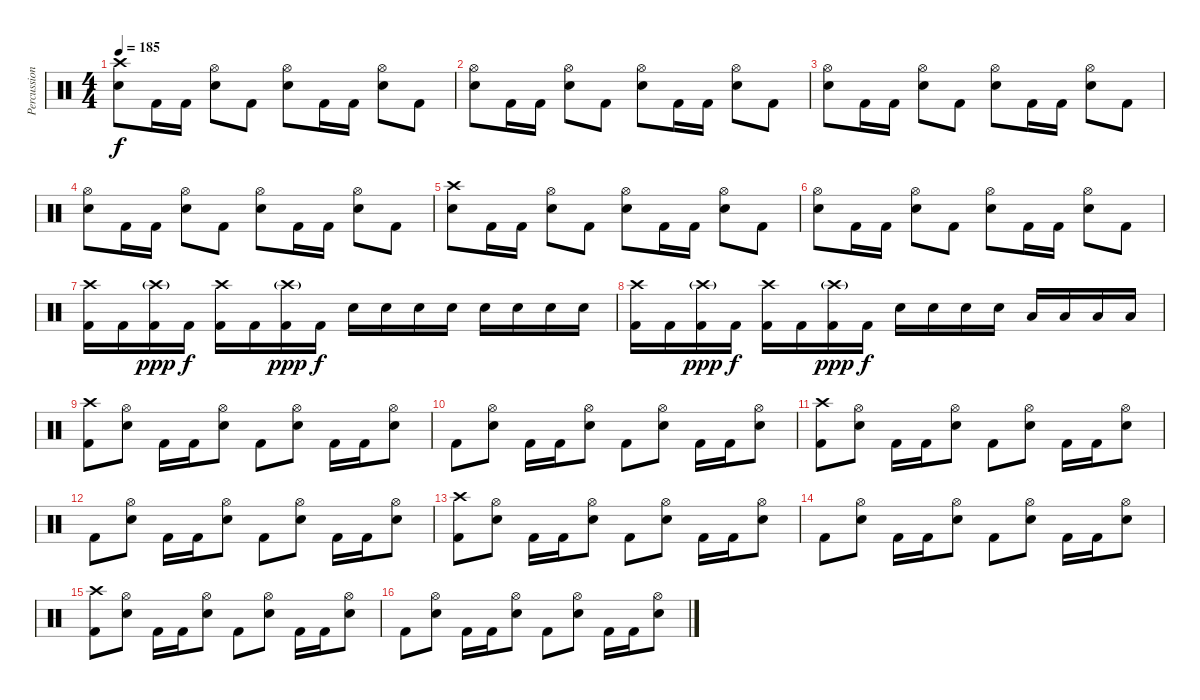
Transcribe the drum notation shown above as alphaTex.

\track ("Percussion" "Percussion") {instrument percussion}
\staff {score}
\articulation defaults
\ts (4 4)
\tempo 185
\clef neutral
\ks c
("Crash high (hit)" "Electric Snare (hit)").8{dy f} "Kick (hit) 2".16 "Kick (hit) 2".16 ("Hi-Hat (open)" "Electric Snare (hit)").8 "Kick (hit) 2".8 ("Hi-Hat (open)" "Electric Snare (hit)").8 "Kick (hit) 2".16 "Kick (hit) 2".16 ("Hi-Hat (open)" "Electric Snare (hit)").8 "Kick (hit) 2".8 |
("Hi-Hat (open)" "Electric Snare (hit)").8 "Kick (hit) 2".16 "Kick (hit) 2".16 ("Hi-Hat (open)" "Electric Snare (hit)").8 "Kick (hit) 2".8 ("Hi-Hat (open)" "Electric Snare (hit)").8 "Kick (hit) 2".16 "Kick (hit) 2".16 ("Hi-Hat (open)" "Electric Snare (hit)").8 "Kick (hit) 2".8 |
("Hi-Hat (open)" "Electric Snare (hit)").8 "Kick (hit) 2".16 "Kick (hit) 2".16 ("Hi-Hat (open)" "Electric Snare (hit)").8 "Kick (hit) 2".8 ("Hi-Hat (open)" "Electric Snare (hit)").8 "Kick (hit) 2".16 "Kick (hit) 2".16 ("Hi-Hat (open)" "Electric Snare (hit)").8 "Kick (hit) 2".8 |
("Hi-Hat (open)" "Electric Snare (hit)").8 "Kick (hit) 2".16 "Kick (hit) 2".16 ("Hi-Hat (open)" "Electric Snare (hit)").8 "Kick (hit) 2".8 ("Hi-Hat (open)" "Electric Snare (hit)").8 "Kick (hit) 2".16 "Kick (hit) 2".16 ("Hi-Hat (open)" "Electric Snare (hit)").8 "Kick (hit) 2".8 |
("Crash high (hit)" "Electric Snare (hit)").8 "Kick (hit) 2".16 "Kick (hit) 2".16 ("Hi-Hat (open)" "Electric Snare (hit)").8 "Kick (hit) 2".8 ("Hi-Hat (open)" "Electric Snare (hit)").8 "Kick (hit) 2".16 "Kick (hit) 2".16 ("Hi-Hat (open)" "Electric Snare (hit)").8 "Kick (hit) 2".8 |
("Hi-Hat (open)" "Electric Snare (hit)").8 "Kick (hit) 2".16 "Kick (hit) 2".16 ("Hi-Hat (open)" "Electric Snare (hit)").8 "Kick (hit) 2".8 ("Hi-Hat (open)" "Electric Snare (hit)").8 "Kick (hit) 2".16 "Kick (hit) 2".16 ("Hi-Hat (open)" "Electric Snare (hit)").8 "Kick (hit) 2".8 |
("Crash high (hit)" "Kick (hit) 2").16 "Kick (hit) 2".16 ("Crash high (hit)"{g} "Kick (hit) 2").16{dy ppp} "Kick (hit) 2".16{dy f} ("Crash high (hit)" "Kick (hit) 2").16 "Kick (hit) 2".16 ("Crash high (hit)"{g} "Kick (hit) 2").16{dy ppp} "Kick (hit) 2".16{dy f} "Electric Snare (hit)".16 "Electric Snare (hit)".16 "Electric Snare (hit)".16 "Electric Snare (hit)".16 "Electric Snare (hit)".16 "Electric Snare (hit)".16 "Electric Snare (hit)".16 "Electric Snare (hit)".16 |
("Crash high (hit)" "Kick (hit) 2").16 "Kick (hit) 2".16 ("Crash high (hit)"{g} "Kick (hit) 2").16{dy ppp} "Kick (hit) 2".16{dy f} ("Crash high (hit)" "Kick (hit) 2").16 "Kick (hit) 2".16 ("Crash high (hit)"{g} "Kick (hit) 2").16{dy ppp} "Kick (hit) 2".16{dy f} "Electric Snare (hit)".16 "Electric Snare (hit)".16 "Electric Snare (hit)".16 "Electric Snare (hit)".16 "Low Tom (hit)".16 "Low Tom (hit)".16 "Low Tom (hit)".16 "Low Tom (hit)".16 |
("Crash high (hit)" "Kick (hit) 2").8 ("Hi-Hat (open)" "Electric Snare (hit)").8 "Kick (hit) 2".16 "Kick (hit) 2".16 ("Hi-Hat (open)" "Electric Snare (hit)").8 "Kick (hit) 2".8 ("Hi-Hat (open)" "Electric Snare (hit)").8 "Kick (hit) 2".16 "Kick (hit) 2".16 ("Hi-Hat (open)" "Electric Snare (hit)").8 |
"Kick (hit) 2".8 ("Hi-Hat (open)" "Electric Snare (hit)").8 "Kick (hit) 2".16 "Kick (hit) 2".16 ("Hi-Hat (open)" "Electric Snare (hit)").8 "Kick (hit) 2".8 ("Hi-Hat (open)" "Electric Snare (hit)").8 "Kick (hit) 2".16 "Kick (hit) 2".16 ("Hi-Hat (open)" "Electric Snare (hit)").8 |
("Crash high (hit)" "Kick (hit) 2").8 ("Hi-Hat (open)" "Electric Snare (hit)").8 "Kick (hit) 2".16 "Kick (hit) 2".16 ("Hi-Hat (open)" "Electric Snare (hit)").8 "Kick (hit) 2".8 ("Hi-Hat (open)" "Electric Snare (hit)").8 "Kick (hit) 2".16 "Kick (hit) 2".16 ("Hi-Hat (open)" "Electric Snare (hit)").8 |
"Kick (hit) 2".8 ("Hi-Hat (open)" "Electric Snare (hit)").8 "Kick (hit) 2".16 "Kick (hit) 2".16 ("Hi-Hat (open)" "Electric Snare (hit)").8 "Kick (hit) 2".8 ("Hi-Hat (open)" "Electric Snare (hit)").8 "Kick (hit) 2".16 "Kick (hit) 2".16 ("Hi-Hat (open)" "Electric Snare (hit)").8 |
("Crash high (hit)" "Kick (hit) 2").8 ("Hi-Hat (open)" "Electric Snare (hit)").8 "Kick (hit) 2".16 "Kick (hit) 2".16 ("Hi-Hat (open)" "Electric Snare (hit)").8 "Kick (hit) 2".8 ("Hi-Hat (open)" "Electric Snare (hit)").8 "Kick (hit) 2".16 "Kick (hit) 2".16 ("Hi-Hat (open)" "Electric Snare (hit)").8 |
"Kick (hit) 2".8 ("Hi-Hat (open)" "Electric Snare (hit)").8 "Kick (hit) 2".16 "Kick (hit) 2".16 ("Hi-Hat (open)" "Electric Snare (hit)").8 "Kick (hit) 2".8 ("Hi-Hat (open)" "Electric Snare (hit)").8 "Kick (hit) 2".16 "Kick (hit) 2".16 ("Hi-Hat (open)" "Electric Snare (hit)").8 |
("Crash high (hit)" "Kick (hit) 2").8 ("Hi-Hat (open)" "Electric Snare (hit)").8 "Kick (hit) 2".16 "Kick (hit) 2".16 ("Hi-Hat (open)" "Electric Snare (hit)").8 "Kick (hit) 2".8 ("Hi-Hat (open)" "Electric Snare (hit)").8 "Kick (hit) 2".16 "Kick (hit) 2".16 ("Hi-Hat (open)" "Electric Snare (hit)").8 |
"Kick (hit) 2".8 ("Hi-Hat (open)" "Electric Snare (hit)").8 "Kick (hit) 2".16 "Kick (hit) 2".16 ("Hi-Hat (open)" "Electric Snare (hit)").8 "Kick (hit) 2".8 ("Hi-Hat (open)" "Electric Snare (hit)").8 "Kick (hit) 2".16 "Kick (hit) 2".16 ("Hi-Hat (open)" "Electric Snare (hit)").8
